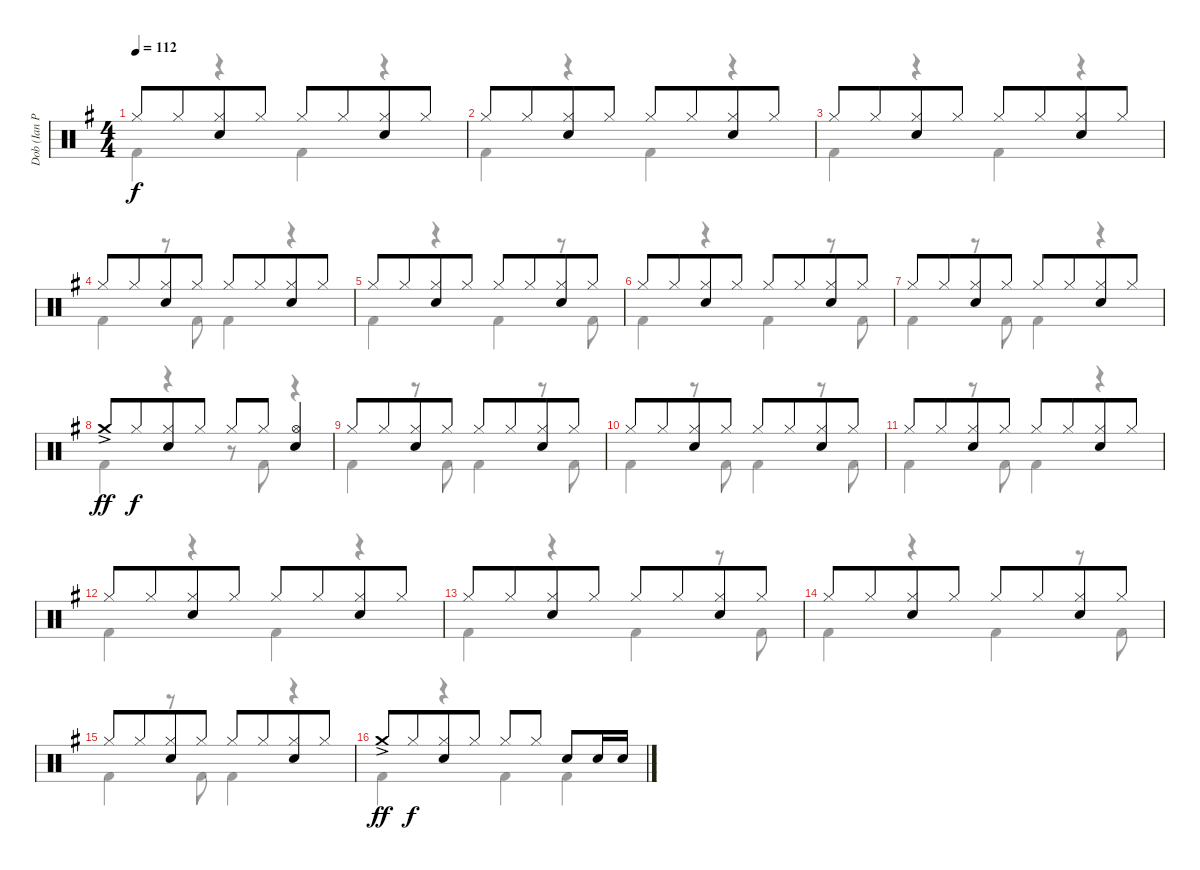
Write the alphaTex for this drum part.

\track ("Dob (Ian Paice)" "Dob (Ian P") {instrument percussion}
\staff {score}
\articulation defaults
\voice
\ts (4 4)
\tempo 112
\clef neutral
\ks g "Hi-Hat (closed)".8{dy f} "Hi-Hat (closed)".8{beam merge}
("Hi-Hat (closed)" "Electric Snare (hit)").8 "Hi-Hat (closed)".8 "Hi-Hat (closed)".8 "Hi-Hat (closed)".8{beam merge} ("Hi-Hat (closed)" "Electric Snare (hit)").8 "Hi-Hat (closed)".8 |
"Hi-Hat (closed)".8 "Hi-Hat (closed)".8{beam merge} ("Hi-Hat (closed)" "Electric Snare (hit)").8 "Hi-Hat (closed)".8 "Hi-Hat (closed)".8 "Hi-Hat (closed)".8{beam merge} ("Hi-Hat (closed)" "Electric Snare (hit)").8 "Hi-Hat (closed)".8 |
"Hi-Hat (closed)".8 "Hi-Hat (closed)".8{beam merge} ("Hi-Hat (closed)" "Electric Snare (hit)").8 "Hi-Hat (closed)".8 "Hi-Hat (closed)".8 "Hi-Hat (closed)".8{beam merge} ("Hi-Hat (closed)" "Electric Snare (hit)").8 "Hi-Hat (closed)".8 |
"Hi-Hat (closed)".8 "Hi-Hat (closed)".8{beam merge} ("Hi-Hat (closed)" "Electric Snare (hit)").8 "Hi-Hat (closed)".8 "Hi-Hat (closed)".8 "Hi-Hat (closed)".8{beam merge} ("Hi-Hat (closed)" "Electric Snare (hit)").8 "Hi-Hat (closed)".8 |
"Hi-Hat (closed)".8 "Hi-Hat (closed)".8{beam merge} ("Hi-Hat (closed)" "Electric Snare (hit)").8 "Hi-Hat (closed)".8 "Hi-Hat (closed)".8 "Hi-Hat (closed)".8{beam merge} ("Hi-Hat (closed)" "Electric Snare (hit)").8 "Hi-Hat (closed)".8 |
"Hi-Hat (closed)".8 "Hi-Hat (closed)".8{beam merge} ("Hi-Hat (closed)" "Electric Snare (hit)").8 "Hi-Hat (closed)".8 "Hi-Hat (closed)".8 "Hi-Hat (closed)".8{beam merge} ("Hi-Hat (closed)" "Electric Snare (hit)").8 "Hi-Hat (closed)".8 |
"Hi-Hat (closed)".8 "Hi-Hat (closed)".8{beam merge} ("Hi-Hat (closed)" "Electric Snare (hit)").8 "Hi-Hat (closed)".8 "Hi-Hat (closed)".8 "Hi-Hat (closed)".8{beam merge} ("Hi-Hat (closed)" "Electric Snare (hit)").8 "Hi-Hat (closed)".8 |
"Crash medium (hit)"{ac}.8{dy ff} "Hi-Hat (closed)".8{dy f beam merge} ("Hi-Hat (closed)" "Electric Snare (hit)").8 "Hi-Hat (closed)".8 "Hi-Hat (closed)".8 "Hi-Hat (closed)".8 ("Hi-Hat (open)" "Electric Snare (hit)").4 |
"Hi-Hat (closed)".8 "Hi-Hat (closed)".8{beam merge} ("Hi-Hat (closed)" "Electric Snare (hit)").8 "Hi-Hat (closed)".8 "Hi-Hat (closed)".8 "Hi-Hat (closed)".8{beam merge} ("Hi-Hat (closed)" "Electric Snare (hit)").8 "Hi-Hat (closed)".8 |
"Hi-Hat (closed)".8 "Hi-Hat (closed)".8{beam merge} ("Hi-Hat (closed)" "Electric Snare (hit)").8 "Hi-Hat (closed)".8 "Hi-Hat (closed)".8 "Hi-Hat (closed)".8{beam merge} ("Hi-Hat (closed)" "Electric Snare (hit)").8 "Hi-Hat (closed)".8 |
"Hi-Hat (closed)".8 "Hi-Hat (closed)".8{beam merge} ("Hi-Hat (closed)" "Electric Snare (hit)").8 "Hi-Hat (closed)".8 "Hi-Hat (closed)".8 "Hi-Hat (closed)".8{beam merge} ("Hi-Hat (closed)" "Electric Snare (hit)").8 "Hi-Hat (closed)".8 |
"Hi-Hat (closed)".8 "Hi-Hat (closed)".8{beam merge} ("Hi-Hat (closed)" "Electric Snare (hit)").8 "Hi-Hat (closed)".8 "Hi-Hat (closed)".8 "Hi-Hat (closed)".8{beam merge} ("Hi-Hat (closed)" "Electric Snare (hit)").8 "Hi-Hat (closed)".8 |
"Hi-Hat (closed)".8 "Hi-Hat (closed)".8{beam merge} ("Hi-Hat (closed)" "Electric Snare (hit)").8 "Hi-Hat (closed)".8 "Hi-Hat (closed)".8 "Hi-Hat (closed)".8{beam merge} ("Hi-Hat (closed)" "Electric Snare (hit)").8 "Hi-Hat (closed)".8 |
"Hi-Hat (closed)".8 "Hi-Hat (closed)".8{beam merge} ("Hi-Hat (closed)" "Electric Snare (hit)").8 "Hi-Hat (closed)".8 "Hi-Hat (closed)".8 "Hi-Hat (closed)".8{beam merge} ("Hi-Hat (closed)" "Electric Snare (hit)").8 "Hi-Hat (closed)".8 |
"Hi-Hat (closed)".8 "Hi-Hat (closed)".8{beam merge} ("Hi-Hat (closed)" "Electric Snare (hit)").8 "Hi-Hat (closed)".8 "Hi-Hat (closed)".8 "Hi-Hat (closed)".8{beam merge} ("Hi-Hat (closed)" "Electric Snare (hit)").8 "Hi-Hat (closed)".8 |
"Crash medium (hit)"{ac}.8{dy ff} "Hi-Hat (closed)".8{dy f beam merge} ("Hi-Hat (closed)" "Electric Snare (hit)").8 "Hi-Hat (closed)".8 "Hi-Hat (closed)".8 "Hi-Hat (closed)".8 "Electric Snare (hit)".8 "Electric Snare (hit)".16 "Electric Snare (hit)".16
\voice
\clef neutral
\ottava regular
\simile none
\ks g "Kick (hit) 2".4{dy f}
r.4 "Kick (hit) 2".4 r.4 |
"Kick (hit) 2".4 r.4 "Kick (hit) 2".4 r.4 |
"Kick (hit) 2".4 r.4 "Kick (hit) 2".4 r.4 |
"Kick (hit) 2".4 r.8 "Kick (hit) 2".8 "Kick (hit) 2".4 r.4 |
"Kick (hit) 2".4 r.4 "Kick (hit) 2".4 r.8 "Kick (hit) 2".8 |
"Kick (hit) 2".4 r.4 "Kick (hit) 2".4 r.8 "Kick (hit) 2".8 |
"Kick (hit) 2".4 r.8 "Kick (hit) 2".8 "Kick (hit) 2".4 r.4 |
"Kick (hit) 2".4 r.4 r.8 "Kick (hit) 2".8 r.4 |
"Kick (hit) 2".4 r.8 "Kick (hit) 2".8 "Kick (hit) 2".4 r.8 "Kick (hit) 2".8 |
"Kick (hit) 2".4 r.8 "Kick (hit) 2".8 "Kick (hit) 2".4 r.8 "Kick (hit) 2".8 |
"Kick (hit) 2".4 r.8 "Kick (hit) 2".8 "Kick (hit) 2".4 r.4 |
"Kick (hit) 2".4 r.4 "Kick (hit) 2".4 r.4 |
"Kick (hit) 2".4 r.4 "Kick (hit) 2".4 r.8 "Kick (hit) 2".8 |
"Kick (hit) 2".4 r.4 "Kick (hit) 2".4 r.8 "Kick (hit) 2".8 |
"Kick (hit) 2".4 r.8 "Kick (hit) 2".8 "Kick (hit) 2".4 r.4 |
"Kick (hit) 2".4 r.4 "Kick (hit) 2".4 "Kick (hit) 2".4
